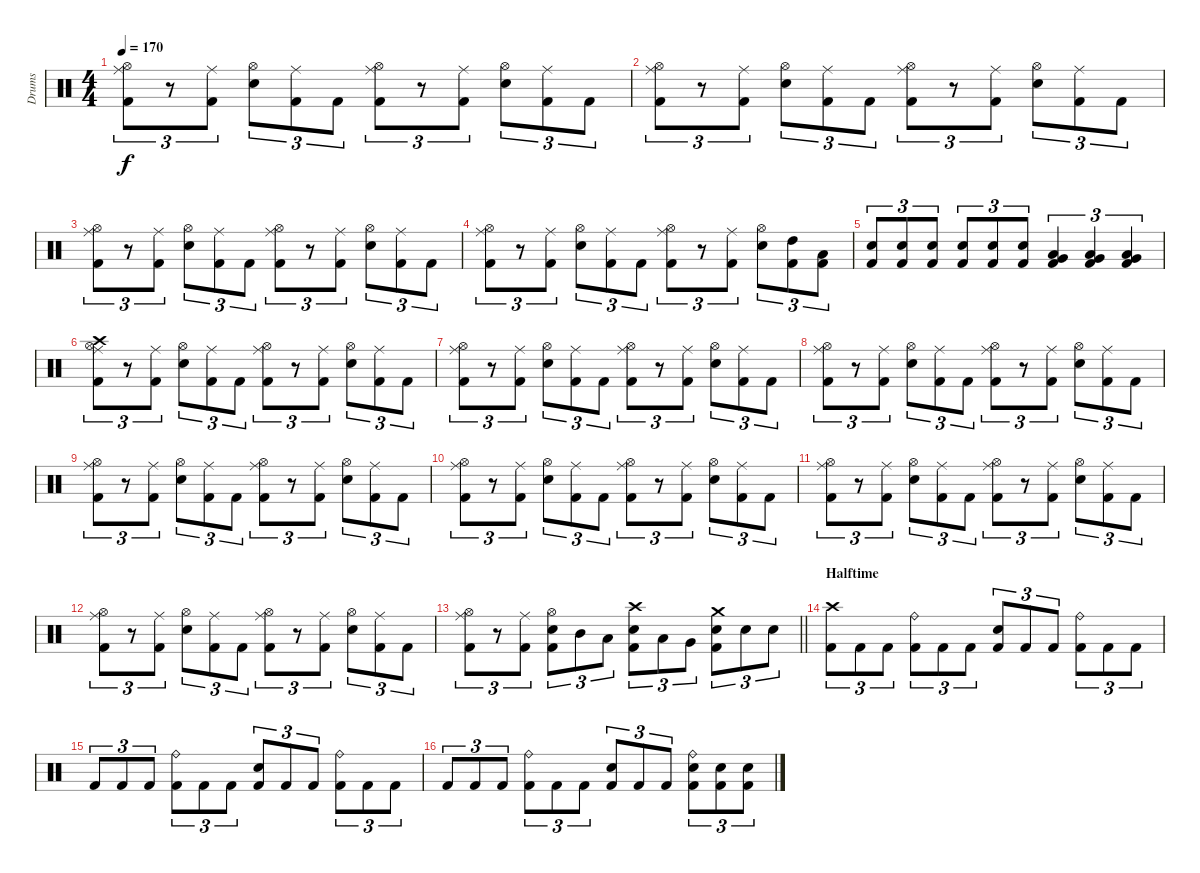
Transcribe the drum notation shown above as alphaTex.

\track ("Drums" "Drums") {instrument percussion}
\staff {score}
\articulation defaults
\ts (4 4)
\tempo 170
\clef neutral
\ks c
("Ride (middle)" "Hi-Hat (open)" "Kick (hit) 2").8{tu (3 2) dy f} r.8{tu (3 2)} ("Ride (middle)" "Kick (hit) 2").8{tu (3 2)} ("Hi-Hat (open)" "Snare (hit) 2").8{tu (3 2)} ("Ride (middle)" "Kick (hit) 2").8{tu (3 2)} "Kick (hit) 2".8{tu (3 2)} ("Ride (middle)" "Hi-Hat (open)" "Kick (hit) 2").8{tu (3 2)} r.8{tu (3 2)} ("Ride (middle)" "Kick (hit) 2").8{tu (3 2)} ("Hi-Hat (open)" "Snare (hit) 2").8{tu (3 2)} ("Ride (middle)" "Kick (hit) 2").8{tu (3 2)} "Kick (hit) 2".8{tu (3 2)} |
("Ride (middle)" "Hi-Hat (open)" "Kick (hit) 2").8{tu (3 2)} r.8{tu (3 2)} ("Ride (middle)" "Kick (hit) 2").8{tu (3 2)} ("Hi-Hat (open)" "Snare (hit) 2").8{tu (3 2)} ("Ride (middle)" "Kick (hit) 2").8{tu (3 2)} "Kick (hit) 2".8{tu (3 2)} ("Ride (middle)" "Hi-Hat (open)" "Kick (hit) 2").8{tu (3 2)} r.8{tu (3 2)} ("Ride (middle)" "Kick (hit) 2").8{tu (3 2)} ("Hi-Hat (open)" "Snare (hit) 2").8{tu (3 2)} ("Ride (middle)" "Kick (hit) 2").8{tu (3 2)} "Kick (hit) 2".8{tu (3 2)} |
("Ride (middle)" "Hi-Hat (open)" "Kick (hit) 2").8{tu (3 2)} r.8{tu (3 2)} ("Ride (middle)" "Kick (hit) 2").8{tu (3 2)} ("Hi-Hat (open)" "Snare (hit) 2").8{tu (3 2)} ("Ride (middle)" "Kick (hit) 2").8{tu (3 2)} "Kick (hit) 2".8{tu (3 2)} ("Ride (middle)" "Hi-Hat (open)" "Kick (hit) 2").8{tu (3 2)} r.8{tu (3 2)} ("Ride (middle)" "Kick (hit) 2").8{tu (3 2)} ("Hi-Hat (open)" "Snare (hit) 2").8{tu (3 2)} ("Ride (middle)" "Kick (hit) 2").8{tu (3 2)} "Kick (hit) 2".8{tu (3 2)} |
("Ride (middle)" "Hi-Hat (open)" "Kick (hit) 2").8{tu (3 2)} r.8{tu (3 2)} ("Ride (middle)" "Kick (hit) 2").8{tu (3 2)} ("Hi-Hat (open)" "Snare (hit) 2").8{tu (3 2)} ("Ride (middle)" "Kick (hit) 2").8{tu (3 2)} "Kick (hit) 2".8{tu (3 2)} ("Ride (middle)" "Hi-Hat (open)" "Kick (hit) 2").8{tu (3 2)} r.8{tu (3 2)} ("Ride (middle)" "Kick (hit) 2").8{tu (3 2)} ("Hi-Hat (open)" "Snare (hit) 2").8{tu (3 2)} ("High Tom (hit)" "Kick (hit) 2").8{tu (3 2)} ("Low Tom (hit)" "Kick (hit) 2").8{tu (3 2)} |
("Snare (hit) 2" "Kick (hit) 2").8{tu (3 2)} ("Snare (hit) 2" "Kick (hit) 2").8{tu (3 2)} ("Snare (hit) 2" "Kick (hit) 2").8{tu (3 2)} ("Snare (hit) 2" "Kick (hit) 2").8{tu (3 2)} ("Snare (hit) 2" "Kick (hit) 2").8{tu (3 2)} ("Snare (hit) 2" "Kick (hit) 2").8{tu (3 2)} ("Low Floor Tom (hit)" "Very Low Tom (hit)" "Kick (hit) 2").4{tu (3 2)} ("Low Floor Tom (hit)" "Very Low Tom (hit)" "Kick (hit) 2").4{tu (3 2)} ("Low Floor Tom (hit)" "Very Low Tom (hit)" "Kick (hit) 2").4{tu (3 2)} |
("Crash high (hit)" "Ride (middle)" "Hi-Hat (open)" "Kick (hit) 2").8{tu (3 2)} r.8{tu (3 2)} ("Ride (middle)" "Kick (hit) 2").8{tu (3 2)} ("Hi-Hat (open)" "Snare (hit) 2").8{tu (3 2)} ("Ride (middle)" "Kick (hit) 2").8{tu (3 2)} "Kick (hit) 2".8{tu (3 2)} ("Ride (middle)" "Hi-Hat (open)" "Kick (hit) 2").8{tu (3 2)} r.8{tu (3 2)} ("Ride (middle)" "Kick (hit) 2").8{tu (3 2)} ("Hi-Hat (open)" "Snare (hit) 2").8{tu (3 2)} ("Ride (middle)" "Kick (hit) 2").8{tu (3 2)} "Kick (hit) 2".8{tu (3 2)} |
("Ride (middle)" "Hi-Hat (open)" "Kick (hit) 2").8{tu (3 2)} r.8{tu (3 2)} ("Ride (middle)" "Kick (hit) 2").8{tu (3 2)} ("Hi-Hat (open)" "Snare (hit) 2").8{tu (3 2)} ("Ride (middle)" "Kick (hit) 2").8{tu (3 2)} "Kick (hit) 2".8{tu (3 2)} ("Ride (middle)" "Hi-Hat (open)" "Kick (hit) 2").8{tu (3 2)} r.8{tu (3 2)} ("Ride (middle)" "Kick (hit) 2").8{tu (3 2)} ("Hi-Hat (open)" "Snare (hit) 2").8{tu (3 2)} ("Ride (middle)" "Kick (hit) 2").8{tu (3 2)} "Kick (hit) 2".8{tu (3 2)} |
("Ride (middle)" "Hi-Hat (open)" "Kick (hit) 2").8{tu (3 2)} r.8{tu (3 2)} ("Ride (middle)" "Kick (hit) 2").8{tu (3 2)} ("Hi-Hat (open)" "Snare (hit) 2").8{tu (3 2)} ("Ride (middle)" "Kick (hit) 2").8{tu (3 2)} "Kick (hit) 2".8{tu (3 2)} ("Ride (middle)" "Hi-Hat (open)" "Kick (hit) 2").8{tu (3 2)} r.8{tu (3 2)} ("Ride (middle)" "Kick (hit) 2").8{tu (3 2)} ("Hi-Hat (open)" "Snare (hit) 2").8{tu (3 2)} ("Ride (middle)" "Kick (hit) 2").8{tu (3 2)} "Kick (hit) 2".8{tu (3 2)} |
("Ride (middle)" "Hi-Hat (open)" "Kick (hit) 2").8{tu (3 2)} r.8{tu (3 2)} ("Ride (middle)" "Kick (hit) 2").8{tu (3 2)} ("Hi-Hat (open)" "Snare (hit) 2").8{tu (3 2)} ("Ride (middle)" "Kick (hit) 2").8{tu (3 2)} "Kick (hit) 2".8{tu (3 2)} ("Ride (middle)" "Hi-Hat (open)" "Kick (hit) 2").8{tu (3 2)} r.8{tu (3 2)} ("Ride (middle)" "Kick (hit) 2").8{tu (3 2)} ("Hi-Hat (open)" "Snare (hit) 2").8{tu (3 2)} ("Ride (middle)" "Kick (hit) 2").8{tu (3 2)} "Kick (hit) 2".8{tu (3 2)} |
("Ride (middle)" "Hi-Hat (open)" "Kick (hit) 2").8{tu (3 2)} r.8{tu (3 2)} ("Ride (middle)" "Kick (hit) 2").8{tu (3 2)} ("Hi-Hat (open)" "Snare (hit) 2").8{tu (3 2)} ("Ride (middle)" "Kick (hit) 2").8{tu (3 2)} "Kick (hit) 2".8{tu (3 2)} ("Ride (middle)" "Hi-Hat (open)" "Kick (hit) 2").8{tu (3 2)} r.8{tu (3 2)} ("Ride (middle)" "Kick (hit) 2").8{tu (3 2)} ("Hi-Hat (open)" "Snare (hit) 2").8{tu (3 2)} ("Ride (middle)" "Kick (hit) 2").8{tu (3 2)} "Kick (hit) 2".8{tu (3 2)} |
("Ride (middle)" "Hi-Hat (open)" "Kick (hit) 2").8{tu (3 2)} r.8{tu (3 2)} ("Ride (middle)" "Kick (hit) 2").8{tu (3 2)} ("Hi-Hat (open)" "Snare (hit) 2").8{tu (3 2)} ("Ride (middle)" "Kick (hit) 2").8{tu (3 2)} "Kick (hit) 2".8{tu (3 2)} ("Ride (middle)" "Hi-Hat (open)" "Kick (hit) 2").8{tu (3 2)} r.8{tu (3 2)} ("Ride (middle)" "Kick (hit) 2").8{tu (3 2)} ("Hi-Hat (open)" "Snare (hit) 2").8{tu (3 2)} ("Ride (middle)" "Kick (hit) 2").8{tu (3 2)} "Kick (hit) 2".8{tu (3 2)} |
("Ride (middle)" "Hi-Hat (open)" "Kick (hit) 2").8{tu (3 2)} r.8{tu (3 2)} ("Ride (middle)" "Kick (hit) 2").8{tu (3 2)} ("Hi-Hat (open)" "Snare (hit) 2").8{tu (3 2)} ("Ride (middle)" "Kick (hit) 2").8{tu (3 2)} "Kick (hit) 2".8{tu (3 2)} ("Ride (middle)" "Hi-Hat (open)" "Kick (hit) 2").8{tu (3 2)} r.8{tu (3 2)} ("Ride (middle)" "Kick (hit) 2").8{tu (3 2)} ("Hi-Hat (open)" "Snare (hit) 2").8{tu (3 2)} ("Ride (middle)" "Kick (hit) 2").8{tu (3 2)} "Kick (hit) 2".8{tu (3 2)} |
\barLineRight lightlight
("Ride (middle)" "Hi-Hat (open)" "Kick (hit) 2").8{tu (3 2)} r.8{tu (3 2)} ("Ride (middle)" "Kick (hit) 2").8{tu (3 2)} ("Hi-Hat (open)" "Snare (hit) 2" "Kick (hit) 2").8{tu (3 2)} "Mid Tom (hit)".8{tu (3 2)} "Low Tom (hit)".8{tu (3 2)} ("Crash high (hit)" "Snare (hit) 2" "Kick (hit) 2").8{tu (3 2)} "Low Tom (hit)".8{tu (3 2)} "Very Low Tom (hit)".8{tu (3 2)} ("Crash medium (hit)" "Snare (hit) 2" "Kick (hit) 2").8{tu (3 2)} "Snare (hit) 2".8{tu (3 2)} "Snare (hit) 2".8{tu (3 2)} |
\section ("" "Halftime")
("Crash high (hit)" "Kick (hit) 2").8{tu (3 2)} "Kick (hit) 2".8{tu (3 2)} "Kick (hit) 2".8{tu (3 2)} ("Ride (bell)" "Kick (hit) 2").8{tu (3 2)} "Kick (hit) 2".8{tu (3 2)} "Kick (hit) 2".8{tu (3 2)} ("Snare (hit) 2" "Kick (hit) 2").8{tu (3 2)} "Kick (hit) 2".8{tu (3 2)} "Kick (hit) 2".8{tu (3 2)} ("Ride (bell)" "Kick (hit) 2").8{tu (3 2)} "Kick (hit) 2".8{tu (3 2)} "Kick (hit) 2".8{tu (3 2)} |
"Kick (hit) 2".8{tu (3 2)} "Kick (hit) 2".8{tu (3 2)} "Kick (hit) 2".8{tu (3 2)} ("Ride (bell)" "Kick (hit) 2").8{tu (3 2)} "Kick (hit) 2".8{tu (3 2)} "Kick (hit) 2".8{tu (3 2)} ("Snare (hit) 2" "Kick (hit) 2").8{tu (3 2)} "Kick (hit) 2".8{tu (3 2)} "Kick (hit) 2".8{tu (3 2)} ("Ride (bell)" "Kick (hit) 2").8{tu (3 2)} "Kick (hit) 2".8{tu (3 2)} "Kick (hit) 2".8{tu (3 2)} |
"Kick (hit) 2".8{tu (3 2)} "Kick (hit) 2".8{tu (3 2)} "Kick (hit) 2".8{tu (3 2)} ("Ride (bell)" "Kick (hit) 2").8{tu (3 2)} "Kick (hit) 2".8{tu (3 2)} "Kick (hit) 2".8{tu (3 2)} ("Snare (hit) 2" "Kick (hit) 2").8{tu (3 2)} "Kick (hit) 2".8{tu (3 2)} "Kick (hit) 2".8{tu (3 2)} ("Ride (bell)" "Snare (hit) 2" "Kick (hit) 2").8{tu (3 2)} ("Snare (hit) 2" "Kick (hit) 2").8{tu (3 2)} ("Snare (hit) 2" "Kick (hit) 2").8{tu (3 2)}
